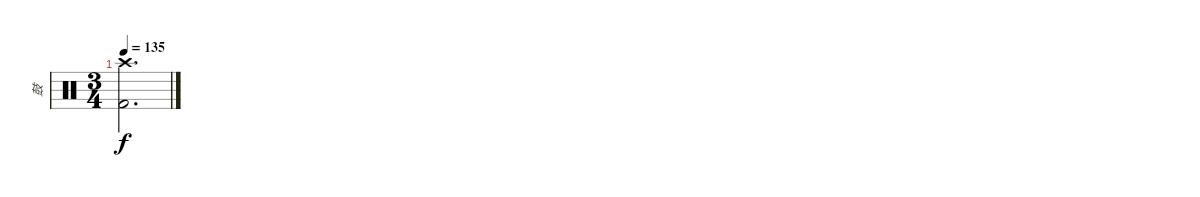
\track ("鼓" "鼓") {instrument percussion}
\staff {score}
\articulation defaults
\ts (3 4)
\tempo 135
\clef neutral
\ks c
("Crash high (hit)" "Kick (hit) 2").2{d dy f}
